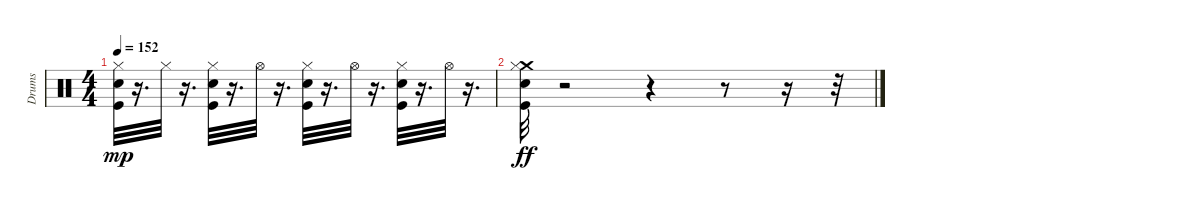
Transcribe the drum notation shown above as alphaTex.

\track ("Drums   " "Drums   ") {instrument percussion}
\staff {score}
\articulation defaults
\ts (4 4)
\tempo 152
\clef neutral
\ks c
("Snare (hit) 2" "Hi-Hat (closed)" "Kick (hit)").32{dy mp} r.16{d} "Hi-Hat (closed)".32 r.16{d} ("Snare (hit) 2" "Hi-Hat (closed)" "Kick (hit)").32 r.16{d} "Hi-Hat (open)".32 r.16{d} ("Snare (hit) 2" "Hi-Hat (closed)" "Kick (hit)").32 r.16{d} "Hi-Hat (open)".32 r.16{d} ("Snare (hit) 2" "Hi-Hat (closed)" "Kick (hit)").32 r.16{d} "Hi-Hat (open)".32 r.16{d} |
("Crash medium (hit)" "Snare (hit) 2" "Hi-Hat (closed)" "Kick (hit)").32{dy ff} r.2 r.4 r.8 r.16 r.32
